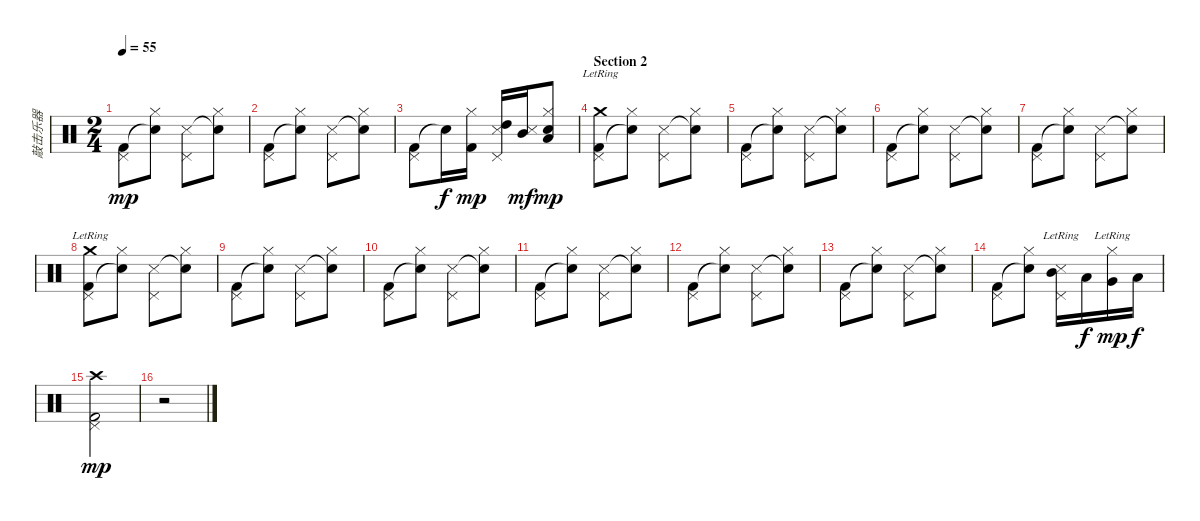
\track ("敲击乐器" "敲击乐器") {instrument percussion}
\staff {score}
\articulation defaults
\ts (2 4)
\tempo 55
\clef neutral
\ks c
("Kick (hit) 2" "Pedal Hi-Hat (hit)").8{dy mp} ("Snare (hit)"{t} "Hi-Hat (closed)").8 ("Snare (side stick) 3" "Pedal Hi-Hat (hit)").8 ("Snare (hit)"{t} "Hi-Hat (closed)").8 |
("Kick (hit) 2" "Pedal Hi-Hat (hit)").8 ("Snare (hit)"{t} "Hi-Hat (closed)").8 ("Snare (side stick) 3" "Pedal Hi-Hat (hit)").8 ("Snare (hit)"{t} "Hi-Hat (closed)").8 |
("Kick (hit) 2" "Pedal Hi-Hat (hit)").8 "Snare (hit)"{t}.16{dy f} ("Kick (hit) 2" "Hi-Hat (closed)").16{dy mp} ("High Tom (hit)" "Metronome (hit)" "Pedal Hi-Hat (hit)").16 ("Mid Tom (hit)" "Metronome (hit)").16{dy mf} ("Low Tom (hit)" "Snare (hit) 2" "Hi-Hat (closed)").8{dy mp} |
\section ("" "Section 2")
("Kick (hit) 2" "Crash medium (hit)"{lr} "Pedal Hi-Hat (hit)").8 ("Snare (hit)"{t} "Hi-Hat (closed)").8 ("Snare (side stick) 3" "Pedal Hi-Hat (hit)").8 ("Snare (hit)"{t} "Hi-Hat (closed)").8 |
("Kick (hit) 2" "Pedal Hi-Hat (hit)").8 ("Snare (hit)"{t} "Hi-Hat (closed)").8 ("Snare (side stick) 3" "Pedal Hi-Hat (hit)").8 ("Snare (hit)"{t} "Hi-Hat (closed)").8 |
("Kick (hit) 2" "Pedal Hi-Hat (hit)").8 ("Snare (hit)"{t} "Hi-Hat (closed)").8 ("Snare (side stick) 3" "Pedal Hi-Hat (hit)").8 ("Snare (hit)"{t} "Hi-Hat (closed)").8 |
("Kick (hit) 2" "Pedal Hi-Hat (hit)").8 ("Snare (hit)"{t} "Hi-Hat (closed)").8 ("Snare (side stick) 3" "Pedal Hi-Hat (hit)").8 ("Snare (hit)"{t} "Hi-Hat (closed)").8 |
("Kick (hit) 2" "Crash medium (hit)"{lr} "Pedal Hi-Hat (hit)").8 ("Snare (hit)"{t} "Hi-Hat (closed)").8 ("Snare (side stick) 3" "Pedal Hi-Hat (hit)").8 ("Snare (hit)"{t} "Hi-Hat (closed)").8 |
("Kick (hit) 2" "Pedal Hi-Hat (hit)").8 ("Snare (hit)"{t} "Hi-Hat (closed)").8 ("Snare (side stick) 3" "Pedal Hi-Hat (hit)").8 ("Snare (hit)"{t} "Hi-Hat (closed)").8 |
("Kick (hit) 2" "Pedal Hi-Hat (hit)").8 ("Snare (hit)"{t} "Hi-Hat (closed)").8 ("Snare (side stick) 3" "Pedal Hi-Hat (hit)").8 ("Snare (hit)"{t} "Hi-Hat (closed)").8 |
("Kick (hit) 2" "Pedal Hi-Hat (hit)").8 ("Snare (hit)"{t} "Hi-Hat (closed)").8 ("Snare (side stick) 3" "Pedal Hi-Hat (hit)").8 ("Snare (hit)"{t} "Hi-Hat (closed)").8 |
("Kick (hit) 2" "Pedal Hi-Hat (hit)").8 ("Snare (hit)"{t} "Hi-Hat (closed)").8 ("Snare (side stick) 3" "Pedal Hi-Hat (hit)").8 ("Snare (hit)"{t} "Hi-Hat (closed)").8 |
("Kick (hit) 2" "Pedal Hi-Hat (hit)").8 ("Snare (hit)"{t} "Hi-Hat (closed)").8 ("Snare (side stick) 3" "Pedal Hi-Hat (hit)").8 ("Snare (hit)"{t} "Hi-Hat (closed)").8 |
("Kick (hit) 2" "Pedal Hi-Hat (hit)").8 ("Snare (hit)"{t} "Hi-Hat (closed)").8 ("Mid Tom (hit)" "Snare (side stick) 3"{lr} "Pedal Hi-Hat (hit)"{lr}).16 "Low Tom (hit)".16{dy f} ("Very Low Tom (hit)" "Hi-Hat (closed)"{lr}).16{dy mp} "Low Floor Tom (hit)".16{dy f} |
("Kick (hit) 2" "Crash high (hit)" "Pedal Hi-Hat (hit)").2{dy mp} |
r.2
